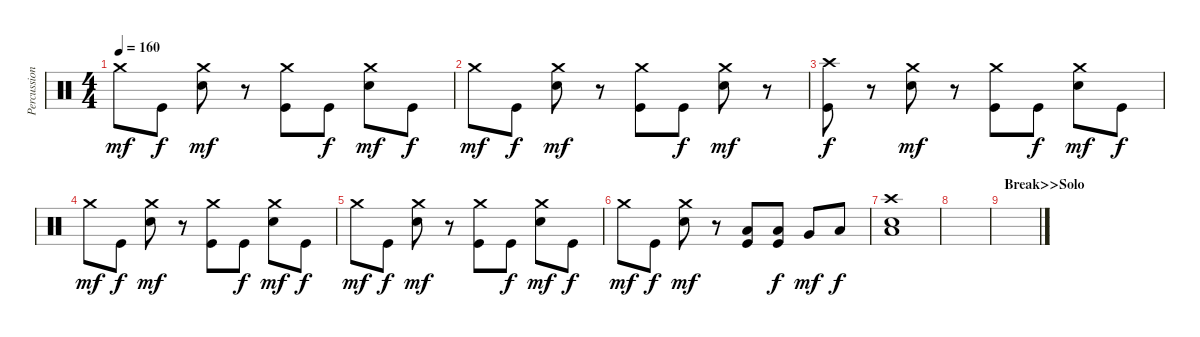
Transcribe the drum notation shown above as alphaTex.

\track ("Percussion" "Percussion") {instrument percussion}
\staff {score}
\articulation defaults
\ts (4 4)
\tempo 160
\clef neutral
\ks c "Crash medium (hit)".8{dy mf} "Kick (hit)".8{dy f}
("Electric Snare (hit)" "Crash medium (hit)").8{dy mf} r.8 ("Kick (hit)" "Crash medium (hit)").8 "Kick (hit)".8{dy f} ("Electric Snare (hit)" "Crash medium (hit)").8{dy mf} "Kick (hit)".8{dy f} |
"Crash medium (hit)".8{dy mf} "Kick (hit)".8{dy f} ("Electric Snare (hit)" "Crash medium (hit)").8{dy mf} r.8 ("Kick (hit)" "Crash medium (hit)").8 "Kick (hit)".8{dy f} ("Electric Snare (hit)" "Crash medium (hit)").8{dy mf} r.8 |
("Kick (hit)" "Crash high (hit)").8{dy f} r.8 ("Electric Snare (hit)" "Crash medium (hit)").8{dy mf} r.8 ("Kick (hit)" "Crash medium (hit)").8 "Kick (hit)".8{dy f} ("Electric Snare (hit)" "Crash medium (hit)").8{dy mf} "Kick (hit)".8{dy f} |
"Crash medium (hit)".8{dy mf} "Kick (hit)".8{dy f} ("Electric Snare (hit)" "Crash medium (hit)").8{dy mf} r.8 ("Kick (hit)" "Crash medium (hit)").8 "Kick (hit)".8{dy f} ("Electric Snare (hit)" "Crash medium (hit)").8{dy mf} "Kick (hit)".8{dy f} |
"Crash medium (hit)".8{dy mf} "Kick (hit)".8{dy f} ("Electric Snare (hit)" "Crash medium (hit)").8{dy mf} r.8 ("Kick (hit)" "Crash medium (hit)").8 "Kick (hit)".8{dy f} ("Electric Snare (hit)" "Crash medium (hit)").8{dy mf} "Kick (hit)".8{dy f} |
"Crash medium (hit)".8{dy mf} "Kick (hit)".8{dy f} ("Electric Snare (hit)" "Crash medium (hit)").8{dy mf} r.8 ("Kick (hit)" "Low Tom (hit)").8 ("Kick (hit)" "Low Tom (hit)").8{dy f} "Very Low Tom (hit)".8{dy mf} "Low Floor Tom (hit)".8{dy f} |
("Low Floor Tom (hit)" "Crash high (hit)" "Electric Snare (hit)").1 |
|
\section ("" "Break>>Solo")
